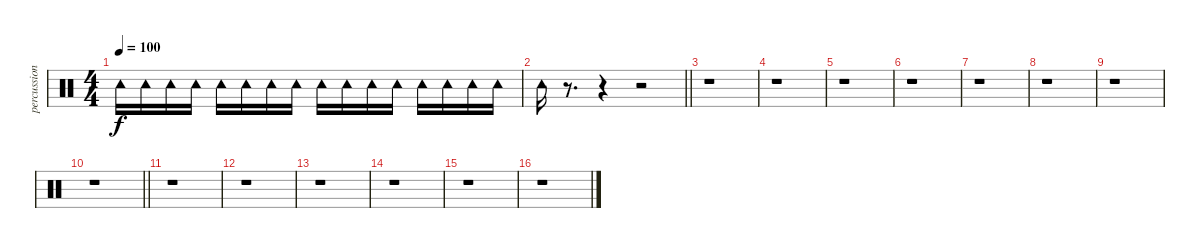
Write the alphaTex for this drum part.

\track ("percussion" "percussion") {instrument percussion}
\staff {score}
\articulation defaults
\ts (4 4)
\tempo 100
\clef neutral
\ks c "Tambourine (hit)".16{dy f} "Tambourine (hit)".16 "Tambourine (hit)".16 "Tambourine (hit)".16 "Tambourine (hit)".16 "Tambourine (hit)".16 "Tambourine (hit)".16 "Tambourine (hit)".16 "Tambourine (hit)".16 "Tambourine (hit)".16 "Tambourine (hit)".16 "Tambourine (hit)".16 "Tambourine (hit)".16 "Tambourine (hit)".16 "Tambourine (hit)".16 "Tambourine (hit)".16
|
\barLineRight lightlight "Tambourine (hit)".16
r.8{d} r.4 r.2 |
r.1 |
r.1 |
r.1 |
r.1 |
r.1 |
r.1 |
r.1 |
\barLineRight lightlight
r.1 |
r.1 |
r.1 |
r.1 |
r.1 |
r.1 |
r.1
